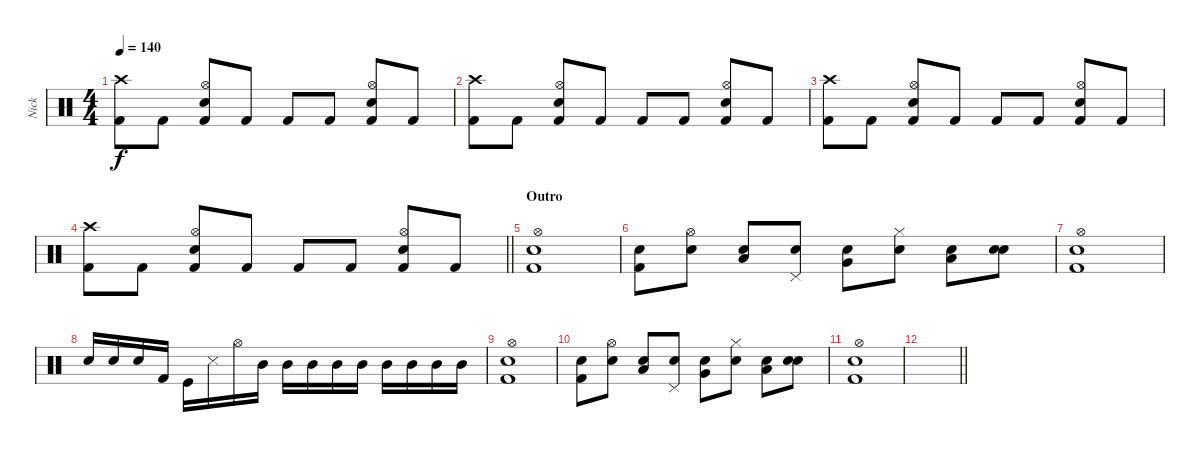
\track ("Nick" "Nick") {instrument percussion}
\staff {score}
\articulation defaults
\ts (4 4)
\tempo 140
\clef neutral
\ks c
("Crash high (hit)" "Kick (hit) 2").8{dy f} "Kick (hit) 2".8 ("Hi-Hat (open)" "Snare (hit) 2" "Kick (hit) 2").8 "Kick (hit) 2".8 "Kick (hit) 2".8 "Kick (hit) 2".8 ("Hi-Hat (open)" "Snare (hit) 2" "Kick (hit) 2").8 "Kick (hit) 2".8 |
("Crash high (hit)" "Kick (hit) 2").8 "Kick (hit) 2".8 ("Hi-Hat (open)" "Snare (hit) 2" "Kick (hit) 2").8 "Kick (hit) 2".8 "Kick (hit) 2".8 "Kick (hit) 2".8 ("Hi-Hat (open)" "Snare (hit) 2" "Kick (hit) 2").8 "Kick (hit) 2".8 |
("Crash high (hit)" "Kick (hit) 2").8 "Kick (hit) 2".8 ("Hi-Hat (open)" "Snare (hit) 2" "Kick (hit) 2").8 "Kick (hit) 2".8 "Kick (hit) 2".8 "Kick (hit) 2".8 ("Hi-Hat (open)" "Snare (hit) 2" "Kick (hit) 2").8 "Kick (hit) 2".8 |
\barLineRight lightlight
("Crash high (hit)" "Kick (hit) 2").8 "Kick (hit) 2".8 ("Hi-Hat (open)" "Snare (hit) 2" "Kick (hit) 2").8 "Kick (hit) 2".8 "Kick (hit) 2".8 "Kick (hit) 2".8 ("Hi-Hat (open)" "Snare (hit) 2" "Kick (hit) 2").8 "Kick (hit) 2".8 |
\section ("" "Outro")
("Hi-Hat (open)" "Snare (hit) 2" "Kick (hit) 2").1 |
("Snare (hit) 2" "Kick (hit) 2").8 ("Hi-Hat (open)" "Snare (hit) 2").8 ("Low Tom (hit)" "Snare (hit) 2").8 ("Pedal Hi-Hat (hit)" "Snare (hit) 2").8 ("Very Low Tom (hit)" "Snare (hit) 2").8 ("Hi-Hat (closed)" "Snare (hit) 2").8 ("Low Floor Tom (hit)" "Snare (hit) 2").8 ("Electric Snare (hit)" "Snare (hit) 2").8 |
("Hi-Hat (open)" "Snare (hit) 2" "Kick (hit) 2").1 |
"Snare (hit) 2".16 "Snare (hit) 2".16 "Snare (hit) 2".16 "Kick (hit) 2".16 "Kick (hit)".16 "Metronome (hit)".16 "Hi-Hat (open)".16 "Mid Tom (hit)".16 "Mid Tom (hit)".16 "Mid Tom (hit)".16 "Mid Tom (hit)".16 "Mid Tom (hit)".16 "Mid Tom (hit)".16 "Mid Tom (hit)".16 "Mid Tom (hit)".16 "Mid Tom (hit)".16 |
("Hi-Hat (open)" "Snare (hit) 2" "Kick (hit) 2").1 |
("Snare (hit) 2" "Kick (hit) 2").8 ("Hi-Hat (open)" "Snare (hit) 2").8 ("Low Tom (hit)" "Snare (hit) 2").8 ("Pedal Hi-Hat (hit)" "Snare (hit) 2").8 ("Very Low Tom (hit)" "Snare (hit) 2").8 ("Hi-Hat (closed)" "Snare (hit) 2").8 ("Low Floor Tom (hit)" "Snare (hit) 2").8 ("Electric Snare (hit)" "Snare (hit) 2").8 |
("Hi-Hat (open)" "Snare (hit) 2" "Kick (hit) 2").1 |
\barLineRight lightlight
